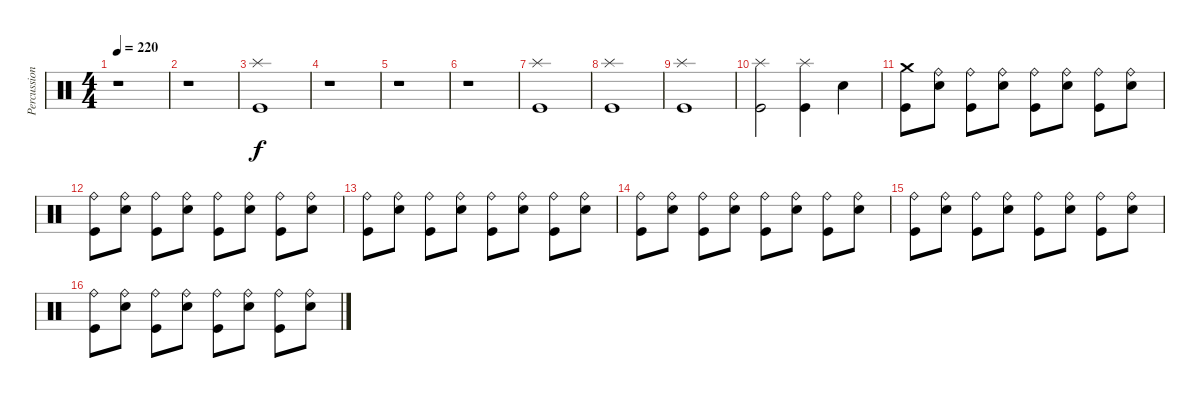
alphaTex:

\track ("Percussions" "Percussion") {instrument percussion}
\staff {score}
\articulation defaults
\ts (4 4)
\tempo 220
\clef neutral
\ks c
r.1{dy f} |
r.1 |
("Kick (hit)" "Splash (hit)").1 |
r.1 |
r.1 |
r.1 |
("Kick (hit)" "Splash (hit)").1 |
("Kick (hit)" "Splash (hit)").1 |
("Kick (hit)" "Splash (hit)").1 |
("Kick (hit)" "Splash (hit)").2 ("Kick (hit)" "Splash (hit)").4 "Electric Snare (hit)".4 |
("Kick (hit)" "Crash medium (hit)").8 ("Electric Snare (hit)" "Ride (bell)").8 ("Kick (hit)" "Ride (bell)").8 ("Electric Snare (hit)" "Ride (bell)").8 ("Kick (hit)" "Ride (bell)").8 ("Electric Snare (hit)" "Ride (bell)").8 ("Kick (hit)" "Ride (bell)").8 ("Electric Snare (hit)" "Ride (bell)").8 |
("Kick (hit)" "Ride (bell)").8 ("Electric Snare (hit)" "Ride (bell)").8 ("Kick (hit)" "Ride (bell)").8 ("Electric Snare (hit)" "Ride (bell)").8 ("Kick (hit)" "Ride (bell)").8 ("Electric Snare (hit)" "Ride (bell)").8 ("Kick (hit)" "Ride (bell)").8 ("Electric Snare (hit)" "Ride (bell)").8 |
("Kick (hit)" "Ride (bell)").8 ("Electric Snare (hit)" "Ride (bell)").8 ("Kick (hit)" "Ride (bell)").8 ("Electric Snare (hit)" "Ride (bell)").8 ("Kick (hit)" "Ride (bell)").8 ("Electric Snare (hit)" "Ride (bell)").8 ("Kick (hit)" "Ride (bell)").8 ("Electric Snare (hit)" "Ride (bell)").8 |
("Kick (hit)" "Ride (bell)").8 ("Electric Snare (hit)" "Ride (bell)").8 ("Kick (hit)" "Ride (bell)").8 ("Electric Snare (hit)" "Ride (bell)").8 ("Kick (hit)" "Ride (bell)").8 ("Electric Snare (hit)" "Ride (bell)").8 ("Kick (hit)" "Ride (bell)").8 ("Electric Snare (hit)" "Ride (bell)").8 |
("Kick (hit)" "Ride (bell)").8 ("Electric Snare (hit)" "Ride (bell)").8 ("Kick (hit)" "Ride (bell)").8 ("Electric Snare (hit)" "Ride (bell)").8 ("Kick (hit)" "Ride (bell)").8 ("Electric Snare (hit)" "Ride (bell)").8 ("Kick (hit)" "Ride (bell)").8 ("Electric Snare (hit)" "Ride (bell)").8 |
("Kick (hit)" "Ride (bell)").8 ("Electric Snare (hit)" "Ride (bell)").8 ("Kick (hit)" "Ride (bell)").8 ("Electric Snare (hit)" "Ride (bell)").8 ("Kick (hit)" "Ride (bell)").8 ("Electric Snare (hit)" "Ride (bell)").8 ("Kick (hit)" "Ride (bell)").8 ("Electric Snare (hit)" "Ride (bell)").8
